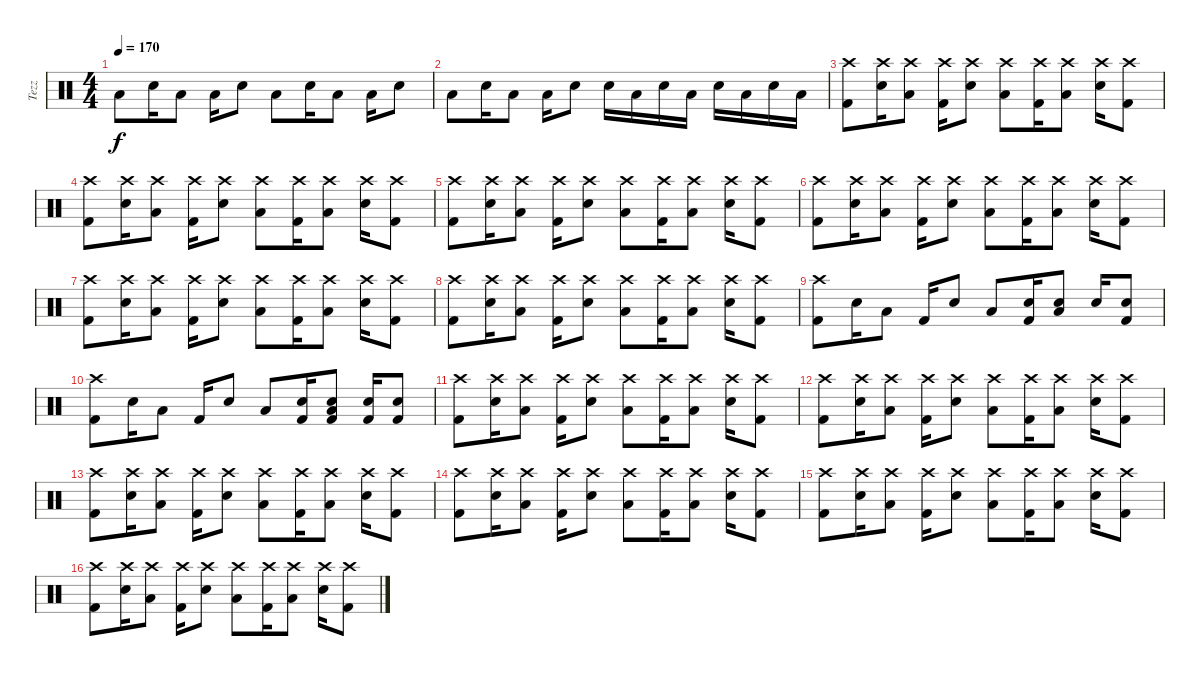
\track ("Tezz" "Tezz") {instrument percussion}
\staff {score}
\articulation defaults
\ts (4 4)
\tempo 170
\clef neutral
\ks c "Low Floor Tom (hit)".8{dy f} "Snare (hit) 2".16 "Low Tom (hit)".8 "Low Floor Tom (hit)".16 "Snare (hit) 2".8 "Low Floor Tom (hit)".8 "Snare (hit) 2".16 "Low Tom (hit)".8 "Low Floor Tom (hit)".16 "Snare (hit) 2".8
|
"Low Floor Tom (hit)".8 "Snare (hit) 2".16 "Low Tom (hit)".8 "Low Floor Tom (hit)".16 "Snare (hit) 2".8 "Snare (hit) 2".16 "Low Tom (hit)".16 "Snare (hit) 2".16 "Low Tom (hit)".16 "Snare (hit) 2".16 "Low Tom (hit)".16 "Snare (hit) 2".16 "Low Tom (hit)".16 |
("Kick (hit) 2" "Crash high (hit)").8 ("Snare (hit) 2" "Crash high (hit)").16 ("Low Tom (hit)" "Crash high (hit)").8 ("Kick (hit) 2" "Crash high (hit)").16 ("Snare (hit) 2" "Crash high (hit)").8 ("Low Tom (hit)" "Crash high (hit)").8 ("Kick (hit) 2" "Crash high (hit)").16 ("Low Tom (hit)" "Crash high (hit)").8 ("Snare (hit) 2" "Crash high (hit)").16 ("Kick (hit) 2" "Crash high (hit)").8 |
("Kick (hit) 2" "Crash high (hit)").8 ("Snare (hit) 2" "Crash high (hit)").16 ("Low Tom (hit)" "Crash high (hit)").8 ("Kick (hit) 2" "Crash high (hit)").16 ("Snare (hit) 2" "Crash high (hit)").8 ("Low Tom (hit)" "Crash high (hit)").8 ("Kick (hit) 2" "Crash high (hit)").16 ("Low Tom (hit)" "Crash high (hit)").8 ("Snare (hit) 2" "Crash high (hit)").16 ("Kick (hit) 2" "Crash high (hit)").8 |
("Kick (hit) 2" "Crash high (hit)").8 ("Snare (hit) 2" "Crash high (hit)").16 ("Low Tom (hit)" "Crash high (hit)").8 ("Kick (hit) 2" "Crash high (hit)").16 ("Snare (hit) 2" "Crash high (hit)").8 ("Low Tom (hit)" "Crash high (hit)").8 ("Kick (hit) 2" "Crash high (hit)").16 ("Low Tom (hit)" "Crash high (hit)").8 ("Snare (hit) 2" "Crash high (hit)").16 ("Kick (hit) 2" "Crash high (hit)").8 |
("Kick (hit) 2" "Crash high (hit)").8 ("Snare (hit) 2" "Crash high (hit)").16 ("Low Tom (hit)" "Crash high (hit)").8 ("Kick (hit) 2" "Crash high (hit)").16 ("Snare (hit) 2" "Crash high (hit)").8 ("Low Tom (hit)" "Crash high (hit)").8 ("Kick (hit) 2" "Crash high (hit)").16 ("Low Tom (hit)" "Crash high (hit)").8 ("Snare (hit) 2" "Crash high (hit)").16 ("Kick (hit) 2" "Crash high (hit)").8 |
("Kick (hit) 2" "Crash high (hit)").8 ("Snare (hit) 2" "Crash high (hit)").16 ("Low Tom (hit)" "Crash high (hit)").8 ("Kick (hit) 2" "Crash high (hit)").16 ("Snare (hit) 2" "Crash high (hit)").8 ("Low Tom (hit)" "Crash high (hit)").8 ("Kick (hit) 2" "Crash high (hit)").16 ("Low Tom (hit)" "Crash high (hit)").8 ("Snare (hit) 2" "Crash high (hit)").16 ("Kick (hit) 2" "Crash high (hit)").8 |
("Kick (hit) 2" "Crash high (hit)").8 ("Snare (hit) 2" "Crash high (hit)").16 ("Low Tom (hit)" "Crash high (hit)").8 ("Kick (hit) 2" "Crash high (hit)").16 ("Snare (hit) 2" "Crash high (hit)").8 ("Low Tom (hit)" "Crash high (hit)").8 ("Kick (hit) 2" "Crash high (hit)").16 ("Low Tom (hit)" "Crash high (hit)").8 ("Snare (hit) 2" "Crash high (hit)").16 ("Kick (hit) 2" "Crash high (hit)").8 |
("Kick (hit) 2" "Crash high (hit)").8 "Snare (hit) 2".16 "Low Tom (hit)".8 "Kick (hit) 2".16 "Snare (hit) 2".8 "Low Tom (hit)".8 ("Kick (hit) 2" "Snare (hit) 2").16 ("Low Tom (hit)" "Electric Snare (hit)").8 "Snare (hit) 2".16 ("Kick (hit) 2" "Electric Snare (hit)").8 |
("Kick (hit) 2" "Crash high (hit)").8 "Snare (hit) 2".16 "Low Tom (hit)".8 "Kick (hit) 2".16 "Snare (hit) 2".8 "Low Tom (hit)".8 ("Snare (hit) 2" "Kick (hit) 2").16 ("Low Tom (hit)" "Snare (hit) 2" "Kick (hit) 2").8 ("Snare (hit) 2" "Kick (hit) 2").16 ("Snare (hit) 2" "Kick (hit) 2").8 |
("Kick (hit) 2" "Crash high (hit)").8 ("Snare (hit) 2" "Crash high (hit)").16 ("Low Tom (hit)" "Crash high (hit)").8 ("Kick (hit) 2" "Crash high (hit)").16 ("Snare (hit) 2" "Crash high (hit)").8 ("Low Tom (hit)" "Crash high (hit)").8 ("Kick (hit) 2" "Crash high (hit)").16 ("Low Tom (hit)" "Crash high (hit)").8 ("Snare (hit) 2" "Crash high (hit)").16 ("Kick (hit) 2" "Crash high (hit)").8 |
("Kick (hit) 2" "Crash high (hit)").8 ("Snare (hit) 2" "Crash high (hit)").16 ("Low Tom (hit)" "Crash high (hit)").8 ("Kick (hit) 2" "Crash high (hit)").16 ("Snare (hit) 2" "Crash high (hit)").8 ("Low Tom (hit)" "Crash high (hit)").8 ("Kick (hit) 2" "Crash high (hit)").16 ("Low Tom (hit)" "Crash high (hit)").8 ("Snare (hit) 2" "Crash high (hit)").16 ("Kick (hit) 2" "Crash high (hit)").8 |
("Kick (hit) 2" "Crash high (hit)").8 ("Snare (hit) 2" "Crash high (hit)").16 ("Low Tom (hit)" "Crash high (hit)").8 ("Kick (hit) 2" "Crash high (hit)").16 ("Snare (hit) 2" "Crash high (hit)").8 ("Low Tom (hit)" "Crash high (hit)").8 ("Kick (hit) 2" "Crash high (hit)").16 ("Low Tom (hit)" "Crash high (hit)").8 ("Snare (hit) 2" "Crash high (hit)").16 ("Kick (hit) 2" "Crash high (hit)").8 |
("Kick (hit) 2" "Crash high (hit)").8 ("Snare (hit) 2" "Crash high (hit)").16 ("Low Tom (hit)" "Crash high (hit)").8 ("Kick (hit) 2" "Crash high (hit)").16 ("Snare (hit) 2" "Crash high (hit)").8 ("Low Tom (hit)" "Crash high (hit)").8 ("Kick (hit) 2" "Crash high (hit)").16 ("Low Tom (hit)" "Crash high (hit)").8 ("Snare (hit) 2" "Crash high (hit)").16 ("Kick (hit) 2" "Crash high (hit)").8 |
("Kick (hit) 2" "Crash high (hit)").8 ("Snare (hit) 2" "Crash high (hit)").16 ("Low Tom (hit)" "Crash high (hit)").8 ("Kick (hit) 2" "Crash high (hit)").16 ("Snare (hit) 2" "Crash high (hit)").8 ("Low Tom (hit)" "Crash high (hit)").8 ("Kick (hit) 2" "Crash high (hit)").16 ("Low Tom (hit)" "Crash high (hit)").8 ("Snare (hit) 2" "Crash high (hit)").16 ("Kick (hit) 2" "Crash high (hit)").8 |
("Kick (hit) 2" "Crash high (hit)").8 ("Snare (hit) 2" "Crash high (hit)").16 ("Low Tom (hit)" "Crash high (hit)").8 ("Kick (hit) 2" "Crash high (hit)").16 ("Snare (hit) 2" "Crash high (hit)").8 ("Low Tom (hit)" "Crash high (hit)").8 ("Kick (hit) 2" "Crash high (hit)").16 ("Low Tom (hit)" "Crash high (hit)").8 ("Snare (hit) 2" "Crash high (hit)").16 ("Kick (hit) 2" "Crash high (hit)").8
